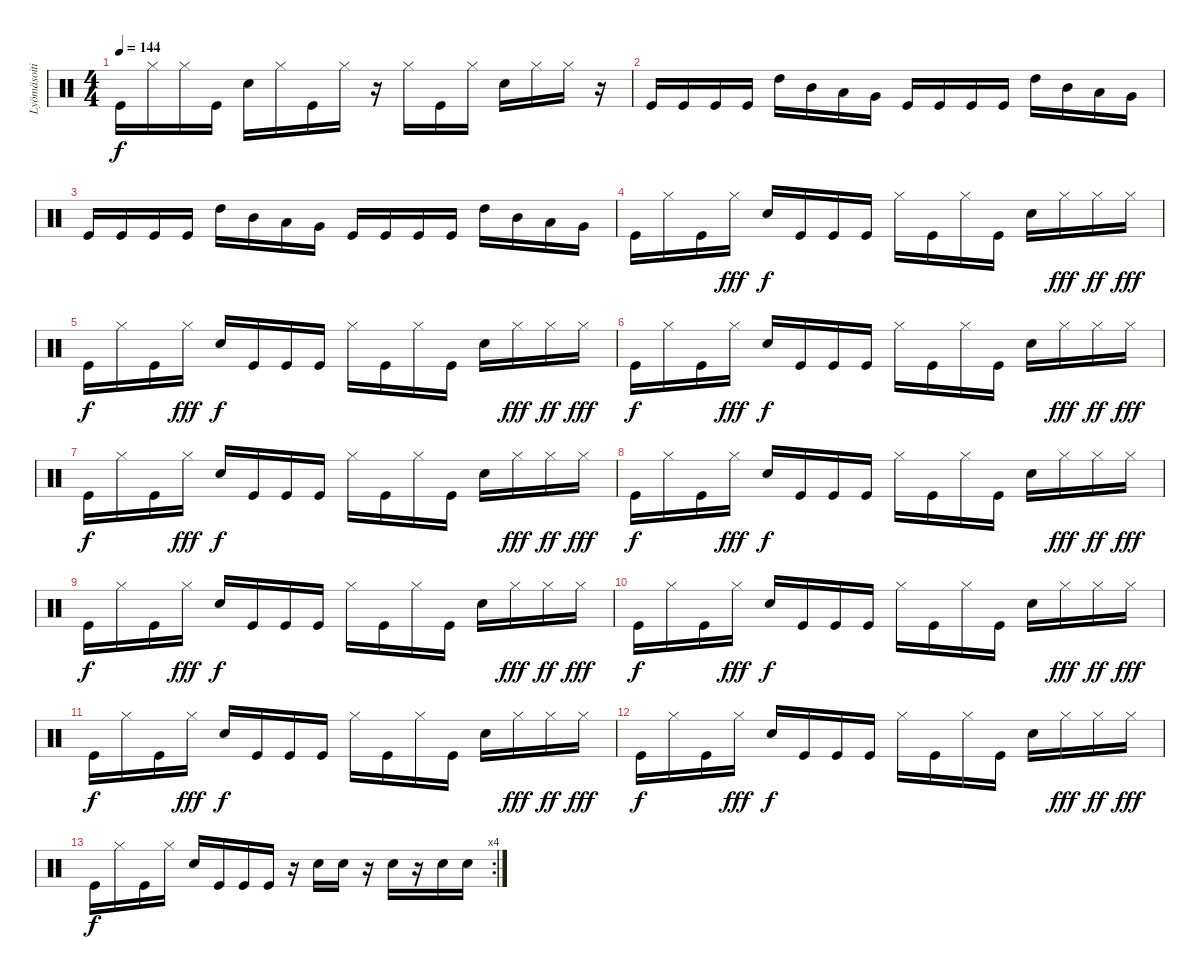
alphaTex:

\track ("Lyömäsoitin" "Lyömäsoiti") {instrument percussion}
\staff {score}
\articulation defaults
\ts (4 4)
\tempo 144
\clef neutral
\ks c "Kick (hit)".16{dy f} "Hi-Hat (closed)".16 "Hi-Hat (closed)".16 "Kick (hit)".16 "Snare (hit) 2".16 "Hi-Hat (closed)".16 "Kick (hit)".16 "Hi-Hat (closed)".16
r.16 "Hi-Hat (closed)".16 "Kick (hit)".16 "Hi-Hat (closed)".16 "Snare (hit) 2".16 "Hi-Hat (closed)".16 "Hi-Hat (closed)".16 r.16 |
"Kick (hit)".16 "Kick (hit)".16 "Kick (hit)".16 "Kick (hit)".16 "High Tom (hit)".16 "Mid Tom (hit)".16 "Low Tom (hit)".16 "Very Low Tom (hit)".16 "Kick (hit)".16 "Kick (hit)".16 "Kick (hit)".16 "Kick (hit)".16 "High Tom (hit)".16 "Mid Tom (hit)".16 "Low Tom (hit)".16 "Very Low Tom (hit)".16 |
"Kick (hit)".16 "Kick (hit)".16 "Kick (hit)".16 "Kick (hit)".16 "High Tom (hit)".16 "Mid Tom (hit)".16 "Low Tom (hit)".16 "Very Low Tom (hit)".16 "Kick (hit)".16 "Kick (hit)".16 "Kick (hit)".16 "Kick (hit)".16 "High Tom (hit)".16 "Mid Tom (hit)".16 "Low Tom (hit)".16 "Very Low Tom (hit)".16 |
"Kick (hit)".16 "Hi-Hat (closed)".16 "Kick (hit)".16 "Hi-Hat (closed)".16{dy fff} "Snare (hit) 2".16{dy f} "Kick (hit)".16 "Kick (hit)".16 "Kick (hit)".16 "Hi-Hat (closed)".16 "Kick (hit)".16 "Hi-Hat (closed)".16 "Kick (hit)".16 "Snare (hit) 2".16 "Hi-Hat (closed)".16{dy fff} "Hi-Hat (closed)".16{dy ff} "Hi-Hat (closed)".16{dy fff} |
"Kick (hit)".16{dy f} "Hi-Hat (closed)".16 "Kick (hit)".16 "Hi-Hat (closed)".16{dy fff} "Snare (hit) 2".16{dy f} "Kick (hit)".16 "Kick (hit)".16 "Kick (hit)".16 "Hi-Hat (closed)".16 "Kick (hit)".16 "Hi-Hat (closed)".16 "Kick (hit)".16 "Snare (hit) 2".16 "Hi-Hat (closed)".16{dy fff} "Hi-Hat (closed)".16{dy ff} "Hi-Hat (closed)".16{dy fff} |
"Kick (hit)".16{dy f} "Hi-Hat (closed)".16 "Kick (hit)".16 "Hi-Hat (closed)".16{dy fff} "Snare (hit) 2".16{dy f} "Kick (hit)".16 "Kick (hit)".16 "Kick (hit)".16 "Hi-Hat (closed)".16 "Kick (hit)".16 "Hi-Hat (closed)".16 "Kick (hit)".16 "Snare (hit) 2".16 "Hi-Hat (closed)".16{dy fff} "Hi-Hat (closed)".16{dy ff} "Hi-Hat (closed)".16{dy fff} |
"Kick (hit)".16{dy f} "Hi-Hat (closed)".16 "Kick (hit)".16 "Hi-Hat (closed)".16{dy fff} "Snare (hit) 2".16{dy f} "Kick (hit)".16 "Kick (hit)".16 "Kick (hit)".16 "Hi-Hat (closed)".16 "Kick (hit)".16 "Hi-Hat (closed)".16 "Kick (hit)".16 "Snare (hit) 2".16 "Hi-Hat (closed)".16{dy fff} "Hi-Hat (closed)".16{dy ff} "Hi-Hat (closed)".16{dy fff} |
"Kick (hit)".16{dy f} "Hi-Hat (closed)".16 "Kick (hit)".16 "Hi-Hat (closed)".16{dy fff} "Snare (hit) 2".16{dy f} "Kick (hit)".16 "Kick (hit)".16 "Kick (hit)".16 "Hi-Hat (closed)".16 "Kick (hit)".16 "Hi-Hat (closed)".16 "Kick (hit)".16 "Snare (hit) 2".16 "Hi-Hat (closed)".16{dy fff} "Hi-Hat (closed)".16{dy ff} "Hi-Hat (closed)".16{dy fff} |
"Kick (hit)".16{dy f} "Hi-Hat (closed)".16 "Kick (hit)".16 "Hi-Hat (closed)".16{dy fff} "Snare (hit) 2".16{dy f} "Kick (hit)".16 "Kick (hit)".16 "Kick (hit)".16 "Hi-Hat (closed)".16 "Kick (hit)".16 "Hi-Hat (closed)".16 "Kick (hit)".16 "Snare (hit) 2".16 "Hi-Hat (closed)".16{dy fff} "Hi-Hat (closed)".16{dy ff} "Hi-Hat (closed)".16{dy fff} |
"Kick (hit)".16{dy f} "Hi-Hat (closed)".16 "Kick (hit)".16 "Hi-Hat (closed)".16{dy fff} "Snare (hit) 2".16{dy f} "Kick (hit)".16 "Kick (hit)".16 "Kick (hit)".16 "Hi-Hat (closed)".16 "Kick (hit)".16 "Hi-Hat (closed)".16 "Kick (hit)".16 "Snare (hit) 2".16 "Hi-Hat (closed)".16{dy fff} "Hi-Hat (closed)".16{dy ff} "Hi-Hat (closed)".16{dy fff} |
"Kick (hit)".16{dy f} "Hi-Hat (closed)".16 "Kick (hit)".16 "Hi-Hat (closed)".16{dy fff} "Snare (hit) 2".16{dy f} "Kick (hit)".16 "Kick (hit)".16 "Kick (hit)".16 "Hi-Hat (closed)".16 "Kick (hit)".16 "Hi-Hat (closed)".16 "Kick (hit)".16 "Snare (hit) 2".16 "Hi-Hat (closed)".16{dy fff} "Hi-Hat (closed)".16{dy ff} "Hi-Hat (closed)".16{dy fff} |
"Kick (hit)".16{dy f} "Hi-Hat (closed)".16 "Kick (hit)".16 "Hi-Hat (closed)".16{dy fff} "Snare (hit) 2".16{dy f} "Kick (hit)".16 "Kick (hit)".16 "Kick (hit)".16 "Hi-Hat (closed)".16 "Kick (hit)".16 "Hi-Hat (closed)".16 "Kick (hit)".16 "Snare (hit) 2".16 "Hi-Hat (closed)".16{dy fff} "Hi-Hat (closed)".16{dy ff} "Hi-Hat (closed)".16{dy fff} |
\rc 4 "Kick (hit)".16{dy f} "Hi-Hat (closed)".16 "Kick (hit)".16 "Hi-Hat (closed)".16 "Snare (hit) 2".16 "Kick (hit)".16 "Kick (hit)".16 "Kick (hit)".16
r.16 "Snare (hit) 2".16 "Snare (hit) 2".16 r.16 "Snare (hit) 2".16 r.16 "Snare (hit) 2".16 "Snare (hit) 2".16
